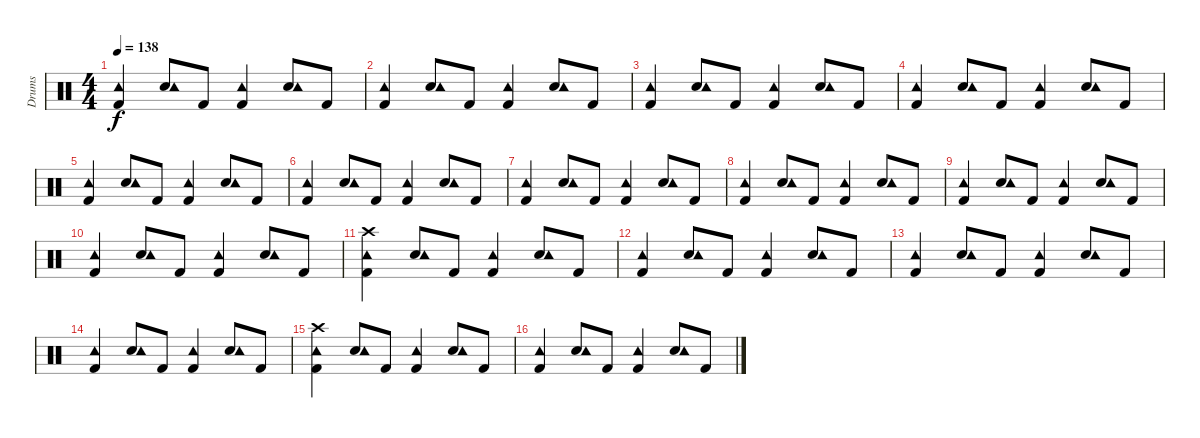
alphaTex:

\track ("Drums" "Drums") {instrument percussion}
\staff {score}
\articulation defaults
\ts (4 4)
\tempo 138
\clef neutral
\ks c
("Kick (hit) 2" "Tambourine (hit)").4{dy f} ("Snare (hit) 2" "Tambourine (hit)").8 "Kick (hit) 2".8 ("Kick (hit) 2" "Tambourine (hit)").4 ("Snare (hit) 2" "Tambourine (hit)").8 "Kick (hit) 2".8 |
("Kick (hit) 2" "Tambourine (hit)").4 ("Snare (hit) 2" "Tambourine (hit)").8 "Kick (hit) 2".8 ("Kick (hit) 2" "Tambourine (hit)").4 ("Snare (hit) 2" "Tambourine (hit)").8 "Kick (hit) 2".8 |
("Kick (hit) 2" "Tambourine (hit)").4 ("Snare (hit) 2" "Tambourine (hit)").8 "Kick (hit) 2".8 ("Kick (hit) 2" "Tambourine (hit)").4 ("Snare (hit) 2" "Tambourine (hit)").8 "Kick (hit) 2".8 |
("Kick (hit) 2" "Tambourine (hit)").4 ("Snare (hit) 2" "Tambourine (hit)").8 "Kick (hit) 2".8 ("Kick (hit) 2" "Tambourine (hit)").4 ("Snare (hit) 2" "Tambourine (hit)").8 "Kick (hit) 2".8 |
("Kick (hit) 2" "Tambourine (hit)").4 ("Snare (hit) 2" "Tambourine (hit)").8 "Kick (hit) 2".8 ("Kick (hit) 2" "Tambourine (hit)").4 ("Snare (hit) 2" "Tambourine (hit)").8 "Kick (hit) 2".8 |
("Kick (hit) 2" "Tambourine (hit)").4 ("Snare (hit) 2" "Tambourine (hit)").8 "Kick (hit) 2".8 ("Kick (hit) 2" "Tambourine (hit)").4 ("Snare (hit) 2" "Tambourine (hit)").8 "Kick (hit) 2".8 |
("Kick (hit) 2" "Tambourine (hit)").4 ("Snare (hit) 2" "Tambourine (hit)").8 "Kick (hit) 2".8 ("Kick (hit) 2" "Tambourine (hit)").4 ("Snare (hit) 2" "Tambourine (hit)").8 "Kick (hit) 2".8 |
("Kick (hit) 2" "Tambourine (hit)").4 ("Snare (hit) 2" "Tambourine (hit)").8 "Kick (hit) 2".8 ("Kick (hit) 2" "Tambourine (hit)").4 ("Snare (hit) 2" "Tambourine (hit)").8 "Kick (hit) 2".8 |
("Kick (hit) 2" "Tambourine (hit)").4 ("Snare (hit) 2" "Tambourine (hit)").8 "Kick (hit) 2".8 ("Kick (hit) 2" "Tambourine (hit)").4 ("Snare (hit) 2" "Tambourine (hit)").8 "Kick (hit) 2".8 |
("Kick (hit) 2" "Tambourine (hit)").4 ("Snare (hit) 2" "Tambourine (hit)").8 "Kick (hit) 2".8 ("Kick (hit) 2" "Tambourine (hit)").4 ("Snare (hit) 2" "Tambourine (hit)").8 "Kick (hit) 2".8 |
("Kick (hit) 2" "Tambourine (hit)" "Crash high (hit)").4 ("Snare (hit) 2" "Tambourine (hit)").8 "Kick (hit) 2".8 ("Kick (hit) 2" "Tambourine (hit)").4 ("Snare (hit) 2" "Tambourine (hit)").8 "Kick (hit) 2".8 |
("Kick (hit) 2" "Tambourine (hit)").4 ("Snare (hit) 2" "Tambourine (hit)").8 "Kick (hit) 2".8 ("Kick (hit) 2" "Tambourine (hit)").4 ("Snare (hit) 2" "Tambourine (hit)").8 "Kick (hit) 2".8 |
("Kick (hit) 2" "Tambourine (hit)").4 ("Snare (hit) 2" "Tambourine (hit)").8 "Kick (hit) 2".8 ("Kick (hit) 2" "Tambourine (hit)").4 ("Snare (hit) 2" "Tambourine (hit)").8 "Kick (hit) 2".8 |
("Kick (hit) 2" "Tambourine (hit)").4 ("Snare (hit) 2" "Tambourine (hit)").8 "Kick (hit) 2".8 ("Kick (hit) 2" "Tambourine (hit)").4 ("Snare (hit) 2" "Tambourine (hit)").8 "Kick (hit) 2".8 |
("Kick (hit) 2" "Tambourine (hit)" "Crash high (hit)").4 ("Snare (hit) 2" "Tambourine (hit)").8 "Kick (hit) 2".8 ("Kick (hit) 2" "Tambourine (hit)").4 ("Snare (hit) 2" "Tambourine (hit)").8 "Kick (hit) 2".8 |
("Kick (hit) 2" "Tambourine (hit)").4 ("Snare (hit) 2" "Tambourine (hit)").8 "Kick (hit) 2".8 ("Kick (hit) 2" "Tambourine (hit)").4 ("Snare (hit) 2" "Tambourine (hit)").8 "Kick (hit) 2".8
